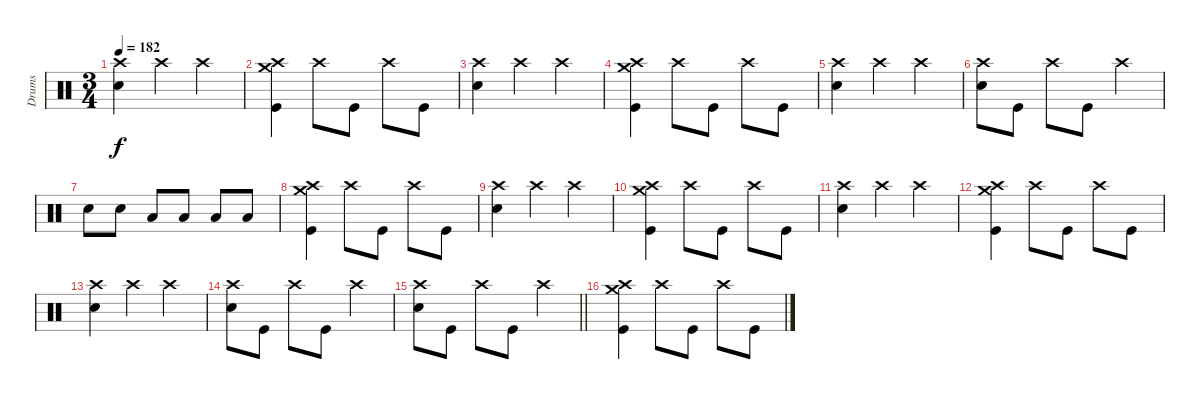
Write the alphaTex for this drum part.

\track ("Drums" "Drums") {instrument percussion}
\staff {score}
\articulation defaults
\ts (3 4)
\tempo 182
\clef neutral
\ks c
("Crash high (hit)" "Electric Snare (hit)").4{dy f} "Crash high (hit)".4 "Crash high (hit)".4 |
("Crash high (hit)" "Crash medium (hit)" "Kick (hit)").4 "Crash high (hit)".8 "Kick (hit)".8 "Crash high (hit)".8 "Kick (hit)".8 |
("Crash high (hit)" "Electric Snare (hit)").4 "Crash high (hit)".4 "Crash high (hit)".4 |
("Crash high (hit)" "Crash medium (hit)" "Kick (hit)").4 "Crash high (hit)".8 "Kick (hit)".8 "Crash high (hit)".8 "Kick (hit)".8 |
("Crash high (hit)" "Electric Snare (hit)").4 "Crash high (hit)".4 "Crash high (hit)".4 |
("Crash high (hit)" "Electric Snare (hit)").8 "Kick (hit)".8 "Crash high (hit)".8 "Kick (hit)".8 "Crash high (hit)".4 |
"Electric Snare (hit)".8 "Electric Snare (hit)".8 "Low Tom (hit)".8 "Low Tom (hit)".8 "Low Floor Tom (hit)".8 "Low Floor Tom (hit)".8 |
("Crash high (hit)" "Crash medium (hit)" "Kick (hit)").4 "Crash high (hit)".8 "Kick (hit)".8 "Crash high (hit)".8 "Kick (hit)".8 |
("Crash high (hit)" "Electric Snare (hit)").4 "Crash high (hit)".4 "Crash high (hit)".4 |
("Crash high (hit)" "Crash medium (hit)" "Kick (hit)").4 "Crash high (hit)".8 "Kick (hit)".8 "Crash high (hit)".8 "Kick (hit)".8 |
("Crash high (hit)" "Electric Snare (hit)").4 "Crash high (hit)".4 "Crash high (hit)".4 |
("Crash high (hit)" "Crash medium (hit)" "Kick (hit)").4 "Crash high (hit)".8 "Kick (hit)".8 "Crash high (hit)".8 "Kick (hit)".8 |
("Crash high (hit)" "Electric Snare (hit)").4 "Crash high (hit)".4 "Crash high (hit)".4 |
("Crash high (hit)" "Electric Snare (hit)").8 "Kick (hit)".8 "Crash high (hit)".8 "Kick (hit)".8 "Crash high (hit)".4 |
\barLineRight lightlight
("Crash high (hit)" "Electric Snare (hit)").8 "Kick (hit)".8 "Crash high (hit)".8 "Kick (hit)".8 "Crash high (hit)".4 |
("Crash high (hit)" "Crash medium (hit)" "Kick (hit)").4 "Crash high (hit)".8 "Kick (hit)".8 "Crash high (hit)".8 "Kick (hit)".8
